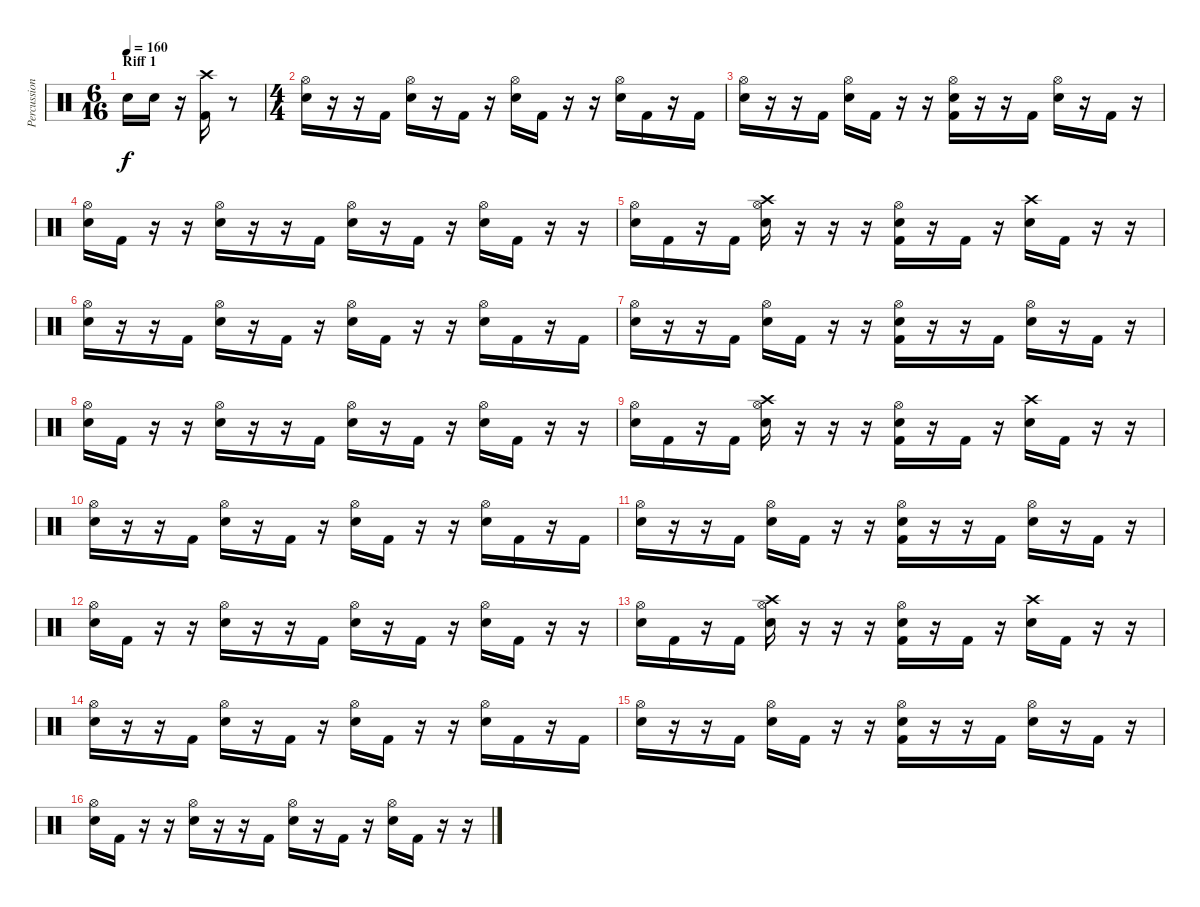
\track ("Percussion" "Percussion") {instrument percussion}
\staff {score}
\articulation defaults
\ts (6 16)
\section ("" "Riff 1")
\tempo 160
\clef neutral
\ks c "Electric Snare (hit)".16{dy f} "Electric Snare (hit)".16
r.16 ("Crash high (hit)" "Kick (hit) 2").16 r.8 |
\ts (4 4)
("Hi-Hat (open)" "Electric Snare (hit)").16 r.16 r.16 "Kick (hit) 2".16 ("Hi-Hat (open)" "Electric Snare (hit)").16 r.16 "Kick (hit) 2".16 r.16 ("Hi-Hat (open)" "Electric Snare (hit)").16 "Kick (hit) 2".16 r.16 r.16 ("Hi-Hat (open)" "Electric Snare (hit)").16 "Kick (hit) 2".16 r.16 "Kick (hit) 2".16 |
("Hi-Hat (open)" "Electric Snare (hit)").16 r.16 r.16 "Kick (hit) 2".16 ("Hi-Hat (open)" "Electric Snare (hit)").16 "Kick (hit) 2".16 r.16 r.16 ("Hi-Hat (open)" "Electric Snare (hit)" "Kick (hit) 2").16 r.16 r.16 "Kick (hit) 2".16 ("Hi-Hat (open)" "Electric Snare (hit)").16 r.16 "Kick (hit) 2".16 r.16 |
("Hi-Hat (open)" "Electric Snare (hit)").16 "Kick (hit) 2".16 r.16 r.16 ("Hi-Hat (open)" "Electric Snare (hit)").16 r.16 r.16 "Kick (hit) 2".16 ("Hi-Hat (open)" "Electric Snare (hit)").16 r.16 "Kick (hit) 2".16 r.16 ("Hi-Hat (open)" "Electric Snare (hit)").16 "Kick (hit) 2".16 r.16 r.16 |
("Hi-Hat (open)" "Electric Snare (hit)").16 "Kick (hit) 2".16 r.16 "Kick (hit) 2".16 ("Hi-Hat (open)" "Crash high (hit)" "Electric Snare (hit)").16 r.16 r.16 r.16 ("Hi-Hat (open)" "Electric Snare (hit)" "Kick (hit) 2").16 r.16 "Kick (hit) 2".16 r.16 ("Crash high (hit)" "Electric Snare (hit)").16 "Kick (hit) 2".16 r.16 r.16 |
("Hi-Hat (open)" "Electric Snare (hit)").16 r.16 r.16 "Kick (hit) 2".16 ("Hi-Hat (open)" "Electric Snare (hit)").16 r.16 "Kick (hit) 2".16 r.16 ("Hi-Hat (open)" "Electric Snare (hit)").16 "Kick (hit) 2".16 r.16 r.16 ("Hi-Hat (open)" "Electric Snare (hit)").16 "Kick (hit) 2".16 r.16 "Kick (hit) 2".16 |
("Hi-Hat (open)" "Electric Snare (hit)").16 r.16 r.16 "Kick (hit) 2".16 ("Hi-Hat (open)" "Electric Snare (hit)").16 "Kick (hit) 2".16 r.16 r.16 ("Hi-Hat (open)" "Electric Snare (hit)" "Kick (hit) 2").16 r.16 r.16 "Kick (hit) 2".16 ("Hi-Hat (open)" "Electric Snare (hit)").16 r.16 "Kick (hit) 2".16 r.16 |
("Hi-Hat (open)" "Electric Snare (hit)").16 "Kick (hit) 2".16 r.16 r.16 ("Hi-Hat (open)" "Electric Snare (hit)").16 r.16 r.16 "Kick (hit) 2".16 ("Hi-Hat (open)" "Electric Snare (hit)").16 r.16 "Kick (hit) 2".16 r.16 ("Hi-Hat (open)" "Electric Snare (hit)").16 "Kick (hit) 2".16 r.16 r.16 |
("Hi-Hat (open)" "Electric Snare (hit)").16 "Kick (hit) 2".16 r.16 "Kick (hit) 2".16 ("Hi-Hat (open)" "Crash high (hit)" "Electric Snare (hit)").16 r.16 r.16 r.16 ("Hi-Hat (open)" "Electric Snare (hit)" "Kick (hit) 2").16 r.16 "Kick (hit) 2".16 r.16 ("Crash high (hit)" "Electric Snare (hit)").16 "Kick (hit) 2".16 r.16 r.16 |
("Hi-Hat (open)" "Electric Snare (hit)").16 r.16 r.16 "Kick (hit) 2".16 ("Hi-Hat (open)" "Electric Snare (hit)").16 r.16 "Kick (hit) 2".16 r.16 ("Hi-Hat (open)" "Electric Snare (hit)").16 "Kick (hit) 2".16 r.16 r.16 ("Hi-Hat (open)" "Electric Snare (hit)").16 "Kick (hit) 2".16 r.16 "Kick (hit) 2".16 |
("Hi-Hat (open)" "Electric Snare (hit)").16 r.16 r.16 "Kick (hit) 2".16 ("Hi-Hat (open)" "Electric Snare (hit)").16 "Kick (hit) 2".16 r.16 r.16 ("Hi-Hat (open)" "Electric Snare (hit)" "Kick (hit) 2").16 r.16 r.16 "Kick (hit) 2".16 ("Hi-Hat (open)" "Electric Snare (hit)").16 r.16 "Kick (hit) 2".16 r.16 |
("Hi-Hat (open)" "Electric Snare (hit)").16 "Kick (hit) 2".16 r.16 r.16 ("Hi-Hat (open)" "Electric Snare (hit)").16 r.16 r.16 "Kick (hit) 2".16 ("Hi-Hat (open)" "Electric Snare (hit)").16 r.16 "Kick (hit) 2".16 r.16 ("Hi-Hat (open)" "Electric Snare (hit)").16 "Kick (hit) 2".16 r.16 r.16 |
("Hi-Hat (open)" "Electric Snare (hit)").16 "Kick (hit) 2".16 r.16 "Kick (hit) 2".16 ("Hi-Hat (open)" "Crash high (hit)" "Electric Snare (hit)").16 r.16 r.16 r.16 ("Hi-Hat (open)" "Electric Snare (hit)" "Kick (hit) 2").16 r.16 "Kick (hit) 2".16 r.16 ("Crash high (hit)" "Electric Snare (hit)").16 "Kick (hit) 2".16 r.16 r.16 |
("Hi-Hat (open)" "Electric Snare (hit)").16 r.16 r.16 "Kick (hit) 2".16 ("Hi-Hat (open)" "Electric Snare (hit)").16 r.16 "Kick (hit) 2".16 r.16 ("Hi-Hat (open)" "Electric Snare (hit)").16 "Kick (hit) 2".16 r.16 r.16 ("Hi-Hat (open)" "Electric Snare (hit)").16 "Kick (hit) 2".16 r.16 "Kick (hit) 2".16 |
("Hi-Hat (open)" "Electric Snare (hit)").16 r.16 r.16 "Kick (hit) 2".16 ("Hi-Hat (open)" "Electric Snare (hit)").16 "Kick (hit) 2".16 r.16 r.16 ("Hi-Hat (open)" "Electric Snare (hit)" "Kick (hit) 2").16 r.16 r.16 "Kick (hit) 2".16 ("Hi-Hat (open)" "Electric Snare (hit)").16 r.16 "Kick (hit) 2".16 r.16 |
("Hi-Hat (open)" "Electric Snare (hit)").16 "Kick (hit) 2".16 r.16 r.16 ("Hi-Hat (open)" "Electric Snare (hit)").16 r.16 r.16 "Kick (hit) 2".16 ("Hi-Hat (open)" "Electric Snare (hit)").16 r.16 "Kick (hit) 2".16 r.16 ("Hi-Hat (open)" "Electric Snare (hit)").16 "Kick (hit) 2".16 r.16 r.16
